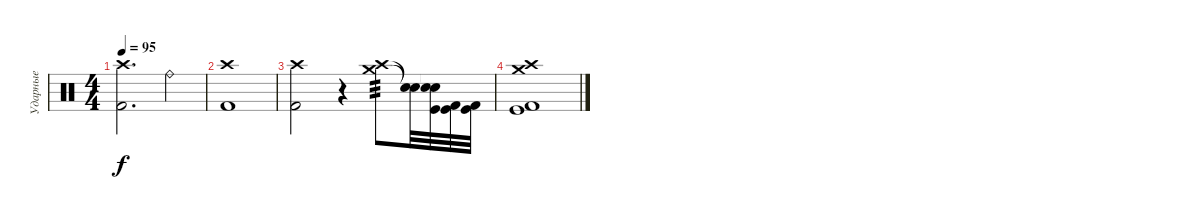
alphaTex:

\track ("Ударные" "Ударные") {instrument percussion}
\staff {score}
\articulation defaults
\ts (4 4)
\tempo 95
\clef neutral
\ks c
("Crash high (hit)" "Kick (hit) 2").2{d dy f} "Ride (bell)".4 |
("Crash high (hit)" "Kick (hit) 2").1 |
("Crash high (hit)" "Kick (hit) 2").2 r.4 ("Crash medium (hit)" "Crash high (hit)").8{tp 3} ("Snare (hit)"{t} "Snare (hit)"{t}).32 ("Snare (hit)"{t} "Snare (hit)"{t} "Kick (hit)").32 ("Kick (hit) 2" "Kick (hit)").32 ("Kick (hit) 2" "Kick (hit)").32 |
("Crash high (hit)" "Crash medium (hit)" "Kick (hit) 2" "Kick (hit)").1
